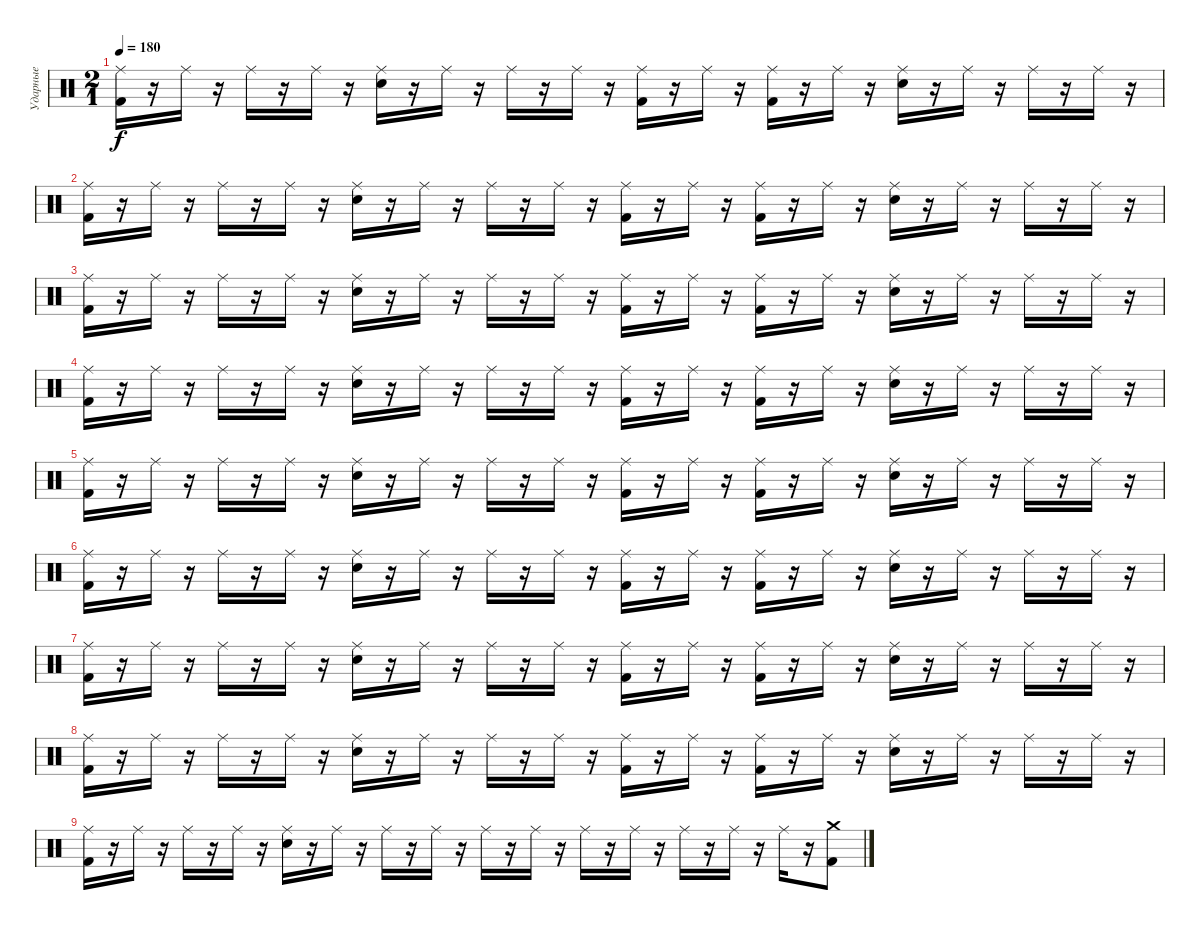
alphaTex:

\track ("Ударные" "Ударные") {instrument percussion}
\staff {score}
\articulation defaults
\ts (2 1)
\tempo 180
\clef neutral
\ks c
("Ride (middle)" "Kick (hit) 2").16{dy f} r.16 "Ride (middle)".16 r.16 "Ride (middle)".16 r.16 "Ride (middle)".16 r.16 ("Ride (middle)" "Electric Snare (hit)").16 r.16 "Ride (middle)".16 r.16 "Ride (middle)".16 r.16 "Ride (middle)".16 r.16 ("Ride (middle)" "Kick (hit) 2").16 r.16 "Ride (middle)".16 r.16 ("Ride (middle)" "Kick (hit) 2").16 r.16 "Ride (middle)".16 r.16 ("Ride (middle)" "Electric Snare (hit)").16 r.16 "Ride (middle)".16 r.16 "Ride (middle)".16 r.16 "Ride (middle)".16 r.16 |
("Ride (middle)" "Kick (hit) 2").16 r.16 "Ride (middle)".16 r.16 "Ride (middle)".16 r.16 "Ride (middle)".16 r.16 ("Ride (middle)" "Electric Snare (hit)").16 r.16 "Ride (middle)".16 r.16 "Ride (middle)".16 r.16 "Ride (middle)".16 r.16 ("Ride (middle)" "Kick (hit) 2").16 r.16 "Ride (middle)".16 r.16 ("Ride (middle)" "Kick (hit) 2").16 r.16 "Ride (middle)".16 r.16 ("Ride (middle)" "Electric Snare (hit)").16 r.16 "Ride (middle)".16 r.16 "Ride (middle)".16 r.16 "Ride (middle)".16 r.16 |
("Ride (middle)" "Kick (hit) 2").16 r.16 "Ride (middle)".16 r.16 "Ride (middle)".16 r.16 "Ride (middle)".16 r.16 ("Ride (middle)" "Electric Snare (hit)").16 r.16 "Ride (middle)".16 r.16 "Ride (middle)".16 r.16 "Ride (middle)".16 r.16 ("Ride (middle)" "Kick (hit) 2").16 r.16 "Ride (middle)".16 r.16 ("Ride (middle)" "Kick (hit) 2").16 r.16 "Ride (middle)".16 r.16 ("Ride (middle)" "Electric Snare (hit)").16 r.16 "Ride (middle)".16 r.16 "Ride (middle)".16 r.16 "Ride (middle)".16 r.16 |
("Ride (middle)" "Kick (hit) 2").16 r.16 "Ride (middle)".16 r.16 "Ride (middle)".16 r.16 "Ride (middle)".16 r.16 ("Ride (middle)" "Electric Snare (hit)").16 r.16 "Ride (middle)".16 r.16 "Ride (middle)".16 r.16 "Ride (middle)".16 r.16 ("Ride (middle)" "Kick (hit) 2").16 r.16 "Ride (middle)".16 r.16 ("Ride (middle)" "Kick (hit) 2").16 r.16 "Ride (middle)".16 r.16 ("Ride (middle)" "Electric Snare (hit)").16 r.16 "Ride (middle)".16 r.16 "Ride (middle)".16 r.16 "Ride (middle)".16 r.16 |
("Ride (middle)" "Kick (hit) 2").16 r.16 "Ride (middle)".16 r.16 "Ride (middle)".16 r.16 "Ride (middle)".16 r.16 ("Ride (middle)" "Electric Snare (hit)").16 r.16 "Ride (middle)".16 r.16 "Ride (middle)".16 r.16 "Ride (middle)".16 r.16 ("Ride (middle)" "Kick (hit) 2").16 r.16 "Ride (middle)".16 r.16 ("Ride (middle)" "Kick (hit) 2").16 r.16 "Ride (middle)".16 r.16 ("Ride (middle)" "Electric Snare (hit)").16 r.16 "Ride (middle)".16 r.16 "Ride (middle)".16 r.16 "Ride (middle)".16 r.16 |
("Ride (middle)" "Kick (hit) 2").16 r.16 "Ride (middle)".16 r.16 "Ride (middle)".16 r.16 "Ride (middle)".16 r.16 ("Ride (middle)" "Electric Snare (hit)").16 r.16 "Ride (middle)".16 r.16 "Ride (middle)".16 r.16 "Ride (middle)".16 r.16 ("Ride (middle)" "Kick (hit) 2").16 r.16 "Ride (middle)".16 r.16 ("Ride (middle)" "Kick (hit) 2").16 r.16 "Ride (middle)".16 r.16 ("Ride (middle)" "Electric Snare (hit)").16 r.16 "Ride (middle)".16 r.16 "Ride (middle)".16 r.16 "Ride (middle)".16 r.16 |
("Ride (middle)" "Kick (hit) 2").16 r.16 "Ride (middle)".16 r.16 "Ride (middle)".16 r.16 "Ride (middle)".16 r.16 ("Ride (middle)" "Electric Snare (hit)").16 r.16 "Ride (middle)".16 r.16 "Ride (middle)".16 r.16 "Ride (middle)".16 r.16 ("Ride (middle)" "Kick (hit) 2").16 r.16 "Ride (middle)".16 r.16 ("Ride (middle)" "Kick (hit) 2").16 r.16 "Ride (middle)".16 r.16 ("Ride (middle)" "Electric Snare (hit)").16 r.16 "Ride (middle)".16 r.16 "Ride (middle)".16 r.16 "Ride (middle)".16 r.16 |
("Ride (middle)" "Kick (hit) 2").16 r.16 "Ride (middle)".16 r.16 "Ride (middle)".16 r.16 "Ride (middle)".16 r.16 ("Ride (middle)" "Electric Snare (hit)").16 r.16 "Ride (middle)".16 r.16 "Ride (middle)".16 r.16 "Ride (middle)".16 r.16 ("Ride (middle)" "Kick (hit) 2").16 r.16 "Ride (middle)".16 r.16 ("Ride (middle)" "Kick (hit) 2").16 r.16 "Ride (middle)".16 r.16 ("Ride (middle)" "Electric Snare (hit)").16 r.16 "Ride (middle)".16 r.16 "Ride (middle)".16 r.16 "Ride (middle)".16 r.16 |
("Ride (middle)" "Kick (hit) 2").16 r.16 "Ride (middle)".16 r.16 "Ride (middle)".16 r.16 "Ride (middle)".16 r.16 ("Ride (middle)" "Electric Snare (hit)").16 r.16 "Ride (middle)".16 r.16 "Ride (middle)".16 r.16 "Ride (middle)".16 r.16 "Ride (middle)".16 r.16 "Ride (middle)".16 r.16 "Ride (middle)".16 r.16 "Ride (middle)".16 r.16 "Ride (middle)".16 r.16 "Ride (middle)".16 r.16 "Ride (middle)".16 r.16 ("Crash medium (hit)" "Kick (hit) 2").8
